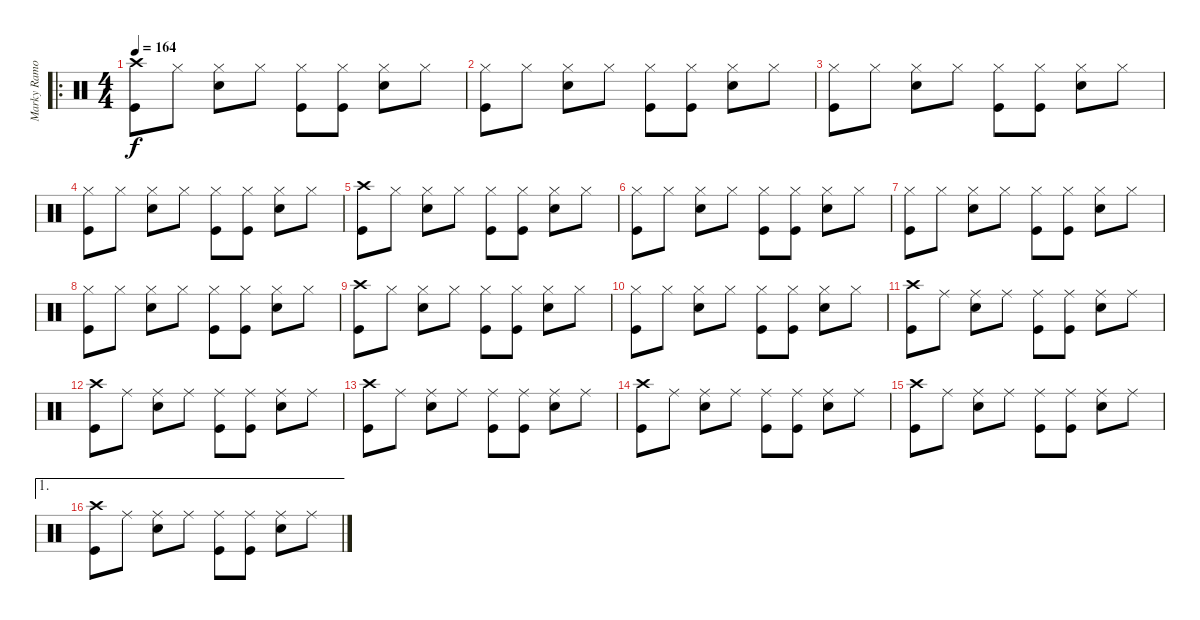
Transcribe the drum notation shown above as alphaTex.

\track ("Marky Ramone (Drums)" "Marky Ramo") {instrument percussion}
\staff {score}
\articulation defaults
\ro
\ts (4 4)
\tempo 164
\clef neutral
\ks c
("Crash high (hit)" "Kick (hit)").8{dy f} "Hi-Hat (closed)".8 ("Hi-Hat (closed)" "Snare (hit) 2").8 "Hi-Hat (closed)".8 ("Hi-Hat (closed)" "Kick (hit)").8 ("Hi-Hat (closed)" "Kick (hit)").8 ("Hi-Hat (closed)" "Snare (hit) 2").8 "Hi-Hat (closed)".8 |
("Hi-Hat (closed)" "Kick (hit)").8 "Hi-Hat (closed)".8 ("Hi-Hat (closed)" "Snare (hit) 2").8 "Hi-Hat (closed)".8 ("Hi-Hat (closed)" "Kick (hit)").8 ("Hi-Hat (closed)" "Kick (hit)").8 ("Hi-Hat (closed)" "Snare (hit) 2").8 "Hi-Hat (closed)".8 |
("Hi-Hat (closed)" "Kick (hit)").8 "Hi-Hat (closed)".8 ("Hi-Hat (closed)" "Snare (hit) 2").8 "Hi-Hat (closed)".8 ("Hi-Hat (closed)" "Kick (hit)").8 ("Hi-Hat (closed)" "Kick (hit)").8 ("Hi-Hat (closed)" "Snare (hit) 2").8 "Hi-Hat (closed)".8 |
("Hi-Hat (closed)" "Kick (hit)").8 "Hi-Hat (closed)".8 ("Hi-Hat (closed)" "Snare (hit) 2").8 "Hi-Hat (closed)".8 ("Hi-Hat (closed)" "Kick (hit)").8 ("Hi-Hat (closed)" "Kick (hit)").8 ("Hi-Hat (closed)" "Snare (hit) 2").8 "Hi-Hat (closed)".8 |
("Crash high (hit)" "Kick (hit)").8 "Hi-Hat (closed)".8 ("Hi-Hat (closed)" "Snare (hit) 2").8 "Hi-Hat (closed)".8 ("Hi-Hat (closed)" "Kick (hit)").8 ("Hi-Hat (closed)" "Kick (hit)").8 ("Hi-Hat (closed)" "Snare (hit) 2").8 "Hi-Hat (closed)".8 |
("Hi-Hat (closed)" "Kick (hit)").8 "Hi-Hat (closed)".8 ("Hi-Hat (closed)" "Snare (hit) 2").8 "Hi-Hat (closed)".8 ("Hi-Hat (closed)" "Kick (hit)").8 ("Hi-Hat (closed)" "Kick (hit)").8 ("Hi-Hat (closed)" "Snare (hit) 2").8 "Hi-Hat (closed)".8 |
("Hi-Hat (closed)" "Kick (hit)").8 "Hi-Hat (closed)".8 ("Hi-Hat (closed)" "Snare (hit) 2").8 "Hi-Hat (closed)".8 ("Hi-Hat (closed)" "Kick (hit)").8 ("Hi-Hat (closed)" "Kick (hit)").8 ("Hi-Hat (closed)" "Snare (hit) 2").8 "Hi-Hat (closed)".8 |
("Hi-Hat (closed)" "Kick (hit)").8 "Hi-Hat (closed)".8 ("Hi-Hat (closed)" "Snare (hit) 2").8 "Hi-Hat (closed)".8 ("Hi-Hat (closed)" "Kick (hit)").8 ("Hi-Hat (closed)" "Kick (hit)").8 ("Hi-Hat (closed)" "Snare (hit) 2").8 "Hi-Hat (closed)".8 |
("Crash high (hit)" "Kick (hit)").8 "Hi-Hat (closed)".8 ("Hi-Hat (closed)" "Snare (hit) 2").8 "Hi-Hat (closed)".8 ("Hi-Hat (closed)" "Kick (hit)").8 ("Hi-Hat (closed)" "Kick (hit)").8 ("Hi-Hat (closed)" "Snare (hit) 2").8 "Hi-Hat (closed)".8 |
("Hi-Hat (closed)" "Kick (hit)").8 "Hi-Hat (closed)".8 ("Hi-Hat (closed)" "Snare (hit) 2").8 "Hi-Hat (closed)".8 ("Hi-Hat (closed)" "Kick (hit)").8 ("Hi-Hat (closed)" "Kick (hit)").8 ("Hi-Hat (closed)" "Snare (hit) 2").8 "Hi-Hat (closed)".8 |
("Crash high (hit)" "Kick (hit)").8 "Ride (middle)".8 ("Ride (middle)" "Snare (hit) 2").8 "Ride (middle)".8 ("Ride (middle)" "Kick (hit)").8 ("Ride (middle)" "Kick (hit)").8 ("Ride (middle)" "Snare (hit) 2").8 "Ride (middle)".8 |
("Crash high (hit)" "Kick (hit)").8 "Ride (middle)".8 ("Ride (middle)" "Snare (hit) 2").8 "Ride (middle)".8 ("Ride (middle)" "Kick (hit)").8 ("Ride (middle)" "Kick (hit)").8 ("Ride (middle)" "Snare (hit) 2").8 "Ride (middle)".8 |
("Crash high (hit)" "Kick (hit)").8 "Ride (middle)".8 ("Ride (middle)" "Snare (hit) 2").8 "Ride (middle)".8 ("Ride (middle)" "Kick (hit)").8 ("Ride (middle)" "Kick (hit)").8 ("Ride (middle)" "Snare (hit) 2").8 "Ride (middle)".8 |
("Crash high (hit)" "Kick (hit)").8 "Ride (middle)".8 ("Ride (middle)" "Snare (hit) 2").8 "Ride (middle)".8 ("Ride (middle)" "Kick (hit)").8 ("Ride (middle)" "Kick (hit)").8 ("Ride (middle)" "Snare (hit) 2").8 "Ride (middle)".8 |
("Crash high (hit)" "Kick (hit)").8 "Ride (middle)".8 ("Ride (middle)" "Snare (hit) 2").8 "Ride (middle)".8 ("Ride (middle)" "Kick (hit)").8 ("Ride (middle)" "Kick (hit)").8 ("Ride (middle)" "Snare (hit) 2").8 "Ride (middle)".8 |
\ae 1
("Crash high (hit)" "Kick (hit)").8 "Ride (middle)".8 ("Ride (middle)" "Snare (hit) 2").8 "Ride (middle)".8 ("Ride (middle)" "Kick (hit)").8 ("Ride (middle)" "Kick (hit)").8 ("Ride (middle)" "Snare (hit) 2").8 "Ride (middle)".8
